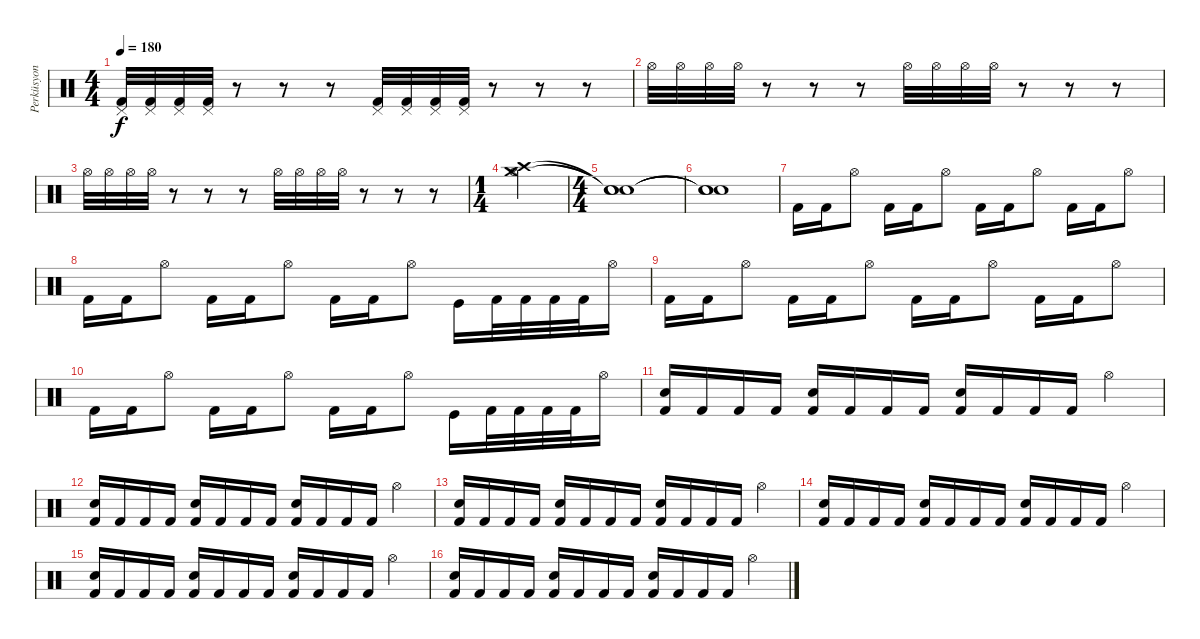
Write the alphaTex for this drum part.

\track ("Perküsyon" "Perküsyon") {instrument percussion}
\staff {score}
\articulation defaults
\ts (4 4)
\tempo 180
\clef neutral
\ks c
("Kick (hit) 2" "Pedal Hi-Hat (hit)").32{dy f} ("Kick (hit) 2" "Pedal Hi-Hat (hit)").32 ("Kick (hit) 2" "Pedal Hi-Hat (hit)").32 ("Kick (hit) 2" "Pedal Hi-Hat (hit)").32 r.8 r.8 r.8 ("Kick (hit) 2" "Pedal Hi-Hat (hit)").32 ("Kick (hit) 2" "Pedal Hi-Hat (hit)").32 ("Kick (hit) 2" "Pedal Hi-Hat (hit)").32 ("Kick (hit) 2" "Pedal Hi-Hat (hit)").32 r.8 r.8 r.8 |
"Hi-Hat (open)".32 "Hi-Hat (open)".32 "Hi-Hat (open)".32 "Hi-Hat (open)".32 r.8 r.8 r.8 "Hi-Hat (open)".32 "Hi-Hat (open)".32 "Hi-Hat (open)".32 "Hi-Hat (open)".32 r.8 r.8 r.8 |
"Hi-Hat (open)".32 "Hi-Hat (open)".32 "Hi-Hat (open)".32 "Hi-Hat (open)".32 r.8 r.8 r.8 "Hi-Hat (open)".32 "Hi-Hat (open)".32 "Hi-Hat (open)".32 "Hi-Hat (open)".32 r.8 r.8 r.8 |
\ts (1 4)
("Crash high (hit)" "Hi-Hat (open)" "Crash medium (hit)").4 |
\ts (4 4)
("Snare (hit)"{t} "Snare (hit)"{t} "Snare (hit)"{t}).1 |
("Snare (hit)"{t} "Snare (hit)"{t} "Snare (hit)"{t}).1 |
"Kick (hit) 2".16 "Kick (hit) 2".16 "Hi-Hat (open)".8 "Kick (hit) 2".16 "Kick (hit) 2".16 "Hi-Hat (open)".8 "Kick (hit) 2".16 "Kick (hit) 2".16 "Hi-Hat (open)".8 "Kick (hit) 2".16 "Kick (hit) 2".16 "Hi-Hat (open)".8 |
"Kick (hit) 2".16 "Kick (hit) 2".16 "Hi-Hat (open)".8 "Kick (hit) 2".16 "Kick (hit) 2".16 "Hi-Hat (open)".8 "Kick (hit) 2".16 "Kick (hit) 2".16 "Hi-Hat (open)".8 "Kick (hit)".16 "Kick (hit) 2".32 "Kick (hit) 2".32 "Kick (hit) 2".32 "Kick (hit) 2".32 "Hi-Hat (open)".16 |
"Kick (hit) 2".16 "Kick (hit) 2".16 "Hi-Hat (open)".8 "Kick (hit) 2".16 "Kick (hit) 2".16 "Hi-Hat (open)".8 "Kick (hit) 2".16 "Kick (hit) 2".16 "Hi-Hat (open)".8 "Kick (hit) 2".16 "Kick (hit) 2".16 "Hi-Hat (open)".8 |
"Kick (hit) 2".16 "Kick (hit) 2".16 "Hi-Hat (open)".8 "Kick (hit) 2".16 "Kick (hit) 2".16 "Hi-Hat (open)".8 "Kick (hit) 2".16 "Kick (hit) 2".16 "Hi-Hat (open)".8 "Kick (hit)".16 "Kick (hit) 2".32 "Kick (hit) 2".32 "Kick (hit) 2".32 "Kick (hit) 2".32 "Hi-Hat (open)".16 |
("Kick (hit) 2" "Electric Snare (hit)").16 "Kick (hit) 2".16 "Kick (hit) 2".16 "Kick (hit) 2".16 ("Kick (hit) 2" "Electric Snare (hit)").16 "Kick (hit) 2".16 "Kick (hit) 2".16 "Kick (hit) 2".16 ("Kick (hit) 2" "Electric Snare (hit)").16 "Kick (hit) 2".16 "Kick (hit) 2".16 "Kick (hit) 2".16 "Hi-Hat (open)".4 |
("Kick (hit) 2" "Electric Snare (hit)").16 "Kick (hit) 2".16 "Kick (hit) 2".16 "Kick (hit) 2".16 ("Kick (hit) 2" "Electric Snare (hit)").16 "Kick (hit) 2".16 "Kick (hit) 2".16 "Kick (hit) 2".16 ("Kick (hit) 2" "Electric Snare (hit)").16 "Kick (hit) 2".16 "Kick (hit) 2".16 "Kick (hit) 2".16 "Hi-Hat (open)".4 |
("Kick (hit) 2" "Electric Snare (hit)").16 "Kick (hit) 2".16 "Kick (hit) 2".16 "Kick (hit) 2".16 ("Kick (hit) 2" "Electric Snare (hit)").16 "Kick (hit) 2".16 "Kick (hit) 2".16 "Kick (hit) 2".16 ("Kick (hit) 2" "Electric Snare (hit)").16 "Kick (hit) 2".16 "Kick (hit) 2".16 "Kick (hit) 2".16 "Hi-Hat (open)".4 |
("Kick (hit) 2" "Electric Snare (hit)").16 "Kick (hit) 2".16 "Kick (hit) 2".16 "Kick (hit) 2".16 ("Kick (hit) 2" "Electric Snare (hit)").16 "Kick (hit) 2".16 "Kick (hit) 2".16 "Kick (hit) 2".16 ("Kick (hit) 2" "Electric Snare (hit)").16 "Kick (hit) 2".16 "Kick (hit) 2".16 "Kick (hit) 2".16 "Hi-Hat (open)".4 |
("Kick (hit) 2" "Electric Snare (hit)").16 "Kick (hit) 2".16 "Kick (hit) 2".16 "Kick (hit) 2".16 ("Kick (hit) 2" "Electric Snare (hit)").16 "Kick (hit) 2".16 "Kick (hit) 2".16 "Kick (hit) 2".16 ("Kick (hit) 2" "Electric Snare (hit)").16 "Kick (hit) 2".16 "Kick (hit) 2".16 "Kick (hit) 2".16 "Hi-Hat (open)".4 |
("Kick (hit) 2" "Electric Snare (hit)").16 "Kick (hit) 2".16 "Kick (hit) 2".16 "Kick (hit) 2".16 ("Kick (hit) 2" "Electric Snare (hit)").16 "Kick (hit) 2".16 "Kick (hit) 2".16 "Kick (hit) 2".16 ("Kick (hit) 2" "Electric Snare (hit)").16 "Kick (hit) 2".16 "Kick (hit) 2".16 "Kick (hit) 2".16 "Hi-Hat (open)".4
